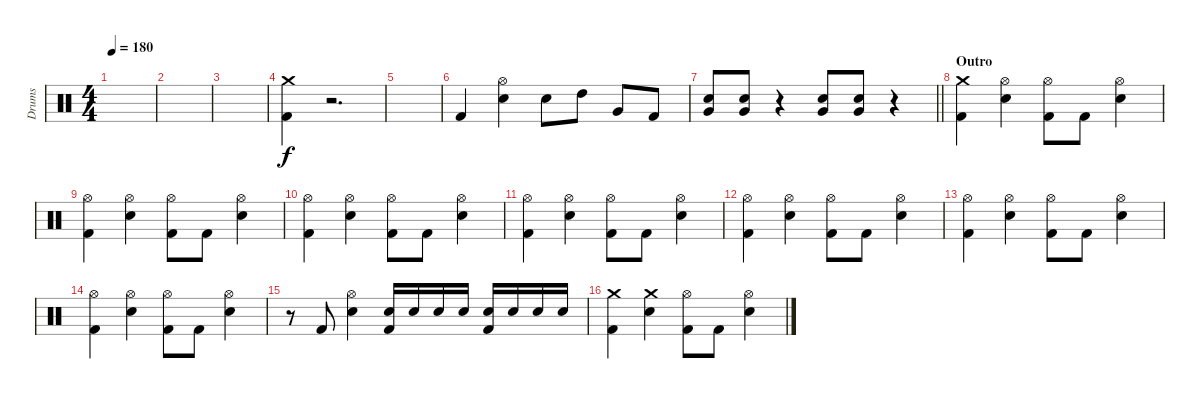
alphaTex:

\track ("Drums" "Drums") {instrument percussion}
\staff {score}
\articulation defaults
\ts (4 4)
\tempo 180
\clef neutral
\ks c
|
|
|
("Crash medium (hit)" "Kick (hit) 2").4 r.2{d} |
|
"Kick (hit) 2".4 ("Hi-Hat (open)" "Snare (hit) 2").4 "Snare (hit) 2".8 "High Tom (hit)".8 "Very Low Tom (hit)".8 "Kick (hit) 2".8 |
\barLineRight lightlight
("Snare (hit) 2" "Very Low Tom (hit)").8 ("Snare (hit) 2" "Very Low Tom (hit)").8 r.4 ("Snare (hit) 2" "Very Low Tom (hit)").8 ("Snare (hit) 2" "Very Low Tom (hit)").8 r.4 |
\section ("" "Outro")
("Crash medium (hit)" "Kick (hit) 2").4 ("Hi-Hat (open)" "Snare (hit) 2").4 ("Hi-Hat (open)" "Kick (hit) 2").8 "Kick (hit) 2".8 ("Hi-Hat (open)" "Snare (hit) 2").4 |
("Hi-Hat (open)" "Kick (hit) 2").4 ("Hi-Hat (open)" "Snare (hit) 2").4 ("Hi-Hat (open)" "Kick (hit) 2").8 "Kick (hit) 2".8 ("Hi-Hat (open)" "Snare (hit) 2").4 |
("Hi-Hat (open)" "Kick (hit) 2").4 ("Hi-Hat (open)" "Snare (hit) 2").4 ("Hi-Hat (open)" "Kick (hit) 2").8 "Kick (hit) 2".8 ("Hi-Hat (open)" "Snare (hit) 2").4 |
("Hi-Hat (open)" "Kick (hit) 2").4 ("Hi-Hat (open)" "Snare (hit) 2").4 ("Hi-Hat (open)" "Kick (hit) 2").8 "Kick (hit) 2".8 ("Hi-Hat (open)" "Snare (hit) 2").4 |
("Hi-Hat (open)" "Kick (hit) 2").4 ("Hi-Hat (open)" "Snare (hit) 2").4 ("Hi-Hat (open)" "Kick (hit) 2").8 "Kick (hit) 2".8 ("Hi-Hat (open)" "Snare (hit) 2").4 |
("Hi-Hat (open)" "Kick (hit) 2").4 ("Hi-Hat (open)" "Snare (hit) 2").4 ("Hi-Hat (open)" "Kick (hit) 2").8 "Kick (hit) 2".8 ("Hi-Hat (open)" "Snare (hit) 2").4 |
("Hi-Hat (open)" "Kick (hit) 2").4 ("Hi-Hat (open)" "Snare (hit) 2").4 ("Hi-Hat (open)" "Kick (hit) 2").8 "Kick (hit) 2".8 ("Hi-Hat (open)" "Snare (hit) 2").4 |
r.8 "Kick (hit) 2".8 ("Hi-Hat (open)" "Snare (hit) 2").4 ("Snare (hit) 2" "Kick (hit) 2").16 "Snare (hit) 2".16 "Snare (hit) 2".16 "Snare (hit) 2".16 ("Snare (hit) 2" "Kick (hit) 2").16 "Snare (hit) 2".16 "Snare (hit) 2".16 "Snare (hit) 2".16 |
("Crash medium (hit)" "Kick (hit) 2").4 ("Crash medium (hit)" "Snare (hit) 2").4 ("Hi-Hat (open)" "Kick (hit) 2").8 "Kick (hit) 2".8 ("Hi-Hat (open)" "Snare (hit) 2").4
